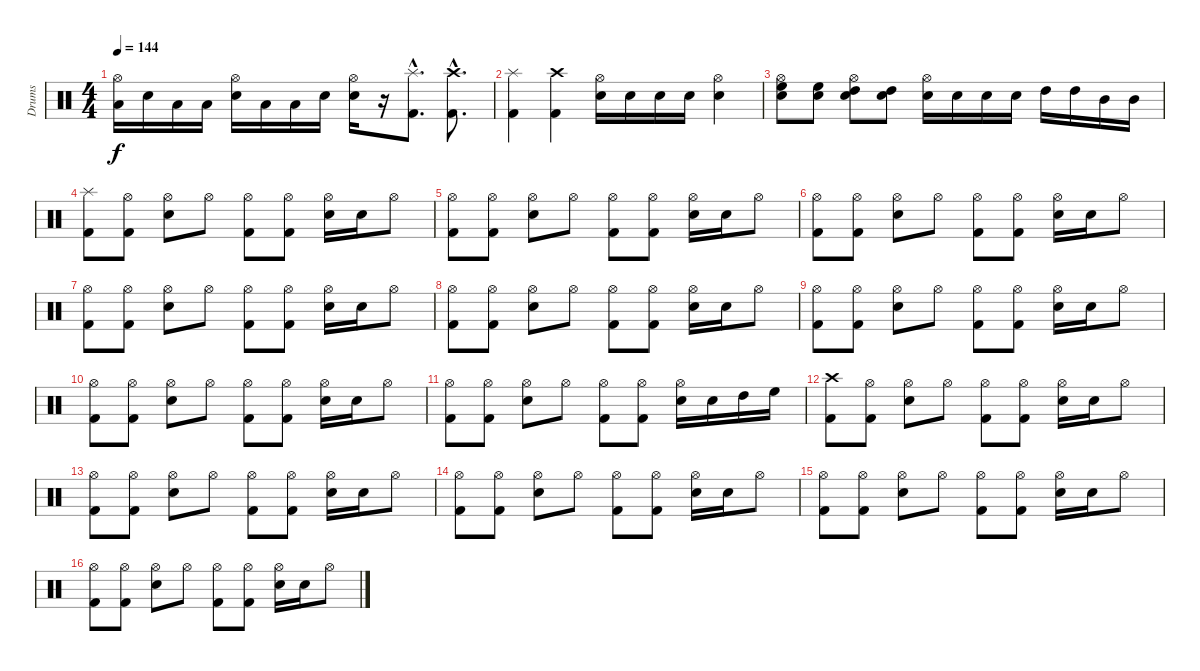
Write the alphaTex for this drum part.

\track ("Drums" "Drums") {instrument percussion}
\staff {score}
\articulation defaults
\ts (4 4)
\tempo 144
\clef neutral
\ks c
("Low Floor Tom (hit)" "Hi-Hat (open)").16{dy f} "Snare (hit) 2".16 "Low Tom (hit)".16 "Low Floor Tom (hit)".16 ("Snare (hit) 2" "Hi-Hat (open)").16 "Low Tom (hit)".16 "Low Floor Tom (hit)".16 "Snare (hit) 2".16 ("Snare (hit) 2" "Hi-Hat (open)").16 r.16 ("Kick (hit) 2"{hac} "Splash (hit)"{hac}).8{d} ("Kick (hit) 2"{hac} "Crash high (hit)"{hac}).8{d} |
("Kick (hit) 2" "Splash (hit)").4 ("Kick (hit) 2" "Crash high (hit)").4 ("Snare (hit) 2" "Hi-Hat (open)").16 "Snare (hit) 2".16 "Snare (hit) 2".16 "Snare (hit) 2".16 ("Snare (hit) 2" "Hi-Hat (open)").4 |
("Snare (hit) 2" "High Floor Tom (hit)" "Hi-Hat (open)").8 ("Snare (hit) 2" "High Floor Tom (hit)").8 ("Snare (hit) 2" "High Tom (hit)" "Hi-Hat (open)").8 ("Snare (hit) 2" "High Tom (hit)").8 ("Snare (hit) 2" "Hi-Hat (open)").16 "Snare (hit) 2".16 "Snare (hit) 2".16 "Snare (hit) 2".16 "High Tom (hit)".16 "High Tom (hit)".16 "Mid Tom (hit)".16 "Mid Tom (hit)".16 |
("Kick (hit) 2" "Splash (hit)").8 ("Kick (hit) 2" "Hi-Hat (open)").8 ("Snare (hit) 2" "Hi-Hat (open)").8 "Hi-Hat (open)".8 ("Kick (hit) 2" "Hi-Hat (open)").8 ("Kick (hit) 2" "Hi-Hat (open)").8 ("Snare (hit) 2" "Hi-Hat (open)").16 "Snare (hit) 2".16 "Hi-Hat (open)".8 |
("Kick (hit) 2" "Hi-Hat (open)").8 ("Kick (hit) 2" "Hi-Hat (open)").8 ("Snare (hit) 2" "Hi-Hat (open)").8 "Hi-Hat (open)".8 ("Kick (hit) 2" "Hi-Hat (open)").8 ("Kick (hit) 2" "Hi-Hat (open)").8 ("Snare (hit) 2" "Hi-Hat (open)").16 "Snare (hit) 2".16 "Hi-Hat (open)".8 |
("Kick (hit) 2" "Hi-Hat (open)").8 ("Kick (hit) 2" "Hi-Hat (open)").8 ("Snare (hit) 2" "Hi-Hat (open)").8 "Hi-Hat (open)".8 ("Kick (hit) 2" "Hi-Hat (open)").8 ("Kick (hit) 2" "Hi-Hat (open)").8 ("Snare (hit) 2" "Hi-Hat (open)").16 "Snare (hit) 2".16 "Hi-Hat (open)".8 |
("Kick (hit) 2" "Hi-Hat (open)").8 ("Kick (hit) 2" "Hi-Hat (open)").8 ("Snare (hit) 2" "Hi-Hat (open)").8 "Hi-Hat (open)".8 ("Kick (hit) 2" "Hi-Hat (open)").8 ("Kick (hit) 2" "Hi-Hat (open)").8 ("Snare (hit) 2" "Hi-Hat (open)").16 "Snare (hit) 2".16 "Hi-Hat (open)".8 |
("Kick (hit) 2" "Hi-Hat (open)").8 ("Kick (hit) 2" "Hi-Hat (open)").8 ("Snare (hit) 2" "Hi-Hat (open)").8 "Hi-Hat (open)".8 ("Kick (hit) 2" "Hi-Hat (open)").8 ("Kick (hit) 2" "Hi-Hat (open)").8 ("Snare (hit) 2" "Hi-Hat (open)").16 "Snare (hit) 2".16 "Hi-Hat (open)".8 |
("Kick (hit) 2" "Hi-Hat (open)").8 ("Kick (hit) 2" "Hi-Hat (open)").8 ("Snare (hit) 2" "Hi-Hat (open)").8 "Hi-Hat (open)".8 ("Kick (hit) 2" "Hi-Hat (open)").8 ("Kick (hit) 2" "Hi-Hat (open)").8 ("Snare (hit) 2" "Hi-Hat (open)").16 "Snare (hit) 2".16 "Hi-Hat (open)".8 |
("Kick (hit) 2" "Hi-Hat (open)").8 ("Kick (hit) 2" "Hi-Hat (open)").8 ("Snare (hit) 2" "Hi-Hat (open)").8 "Hi-Hat (open)".8 ("Kick (hit) 2" "Hi-Hat (open)").8 ("Kick (hit) 2" "Hi-Hat (open)").8 ("Snare (hit) 2" "Hi-Hat (open)").16 "Snare (hit) 2".16 "Hi-Hat (open)".8 |
("Kick (hit) 2" "Hi-Hat (open)").8 ("Kick (hit) 2" "Hi-Hat (open)").8 ("Snare (hit) 2" "Hi-Hat (open)").8 "Hi-Hat (open)".8 ("Kick (hit) 2" "Hi-Hat (open)").8 ("Kick (hit) 2" "Hi-Hat (open)").8 ("Snare (hit) 2" "Hi-Hat (open)").16 "Snare (hit) 2".16 "High Tom (hit)".16 "High Floor Tom (hit)".16 |
("Kick (hit) 2" "Crash high (hit)").8 ("Kick (hit) 2" "Hi-Hat (open)").8 ("Snare (hit) 2" "Hi-Hat (open)").8 "Hi-Hat (open)".8 ("Kick (hit) 2" "Hi-Hat (open)").8 ("Kick (hit) 2" "Hi-Hat (open)").8 ("Snare (hit) 2" "Hi-Hat (open)").16 "Snare (hit) 2".16 "Hi-Hat (open)".8 |
("Kick (hit) 2" "Hi-Hat (open)").8 ("Kick (hit) 2" "Hi-Hat (open)").8 ("Snare (hit) 2" "Hi-Hat (open)").8 "Hi-Hat (open)".8 ("Kick (hit) 2" "Hi-Hat (open)").8 ("Kick (hit) 2" "Hi-Hat (open)").8 ("Snare (hit) 2" "Hi-Hat (open)").16 "Snare (hit) 2".16 "Hi-Hat (open)".8 |
("Kick (hit) 2" "Hi-Hat (open)").8 ("Kick (hit) 2" "Hi-Hat (open)").8 ("Snare (hit) 2" "Hi-Hat (open)").8 "Hi-Hat (open)".8 ("Kick (hit) 2" "Hi-Hat (open)").8 ("Kick (hit) 2" "Hi-Hat (open)").8 ("Snare (hit) 2" "Hi-Hat (open)").16 "Snare (hit) 2".16 "Hi-Hat (open)".8 |
("Kick (hit) 2" "Hi-Hat (open)").8 ("Kick (hit) 2" "Hi-Hat (open)").8 ("Snare (hit) 2" "Hi-Hat (open)").8 "Hi-Hat (open)".8 ("Kick (hit) 2" "Hi-Hat (open)").8 ("Kick (hit) 2" "Hi-Hat (open)").8 ("Snare (hit) 2" "Hi-Hat (open)").16 "Snare (hit) 2".16 "Hi-Hat (open)".8 |
("Kick (hit) 2" "Hi-Hat (open)").8 ("Kick (hit) 2" "Hi-Hat (open)").8 ("Snare (hit) 2" "Hi-Hat (open)").8 "Hi-Hat (open)".8 ("Kick (hit) 2" "Hi-Hat (open)").8 ("Kick (hit) 2" "Hi-Hat (open)").8 ("Snare (hit) 2" "Hi-Hat (open)").16 "Snare (hit) 2".16 "Hi-Hat (open)".8
